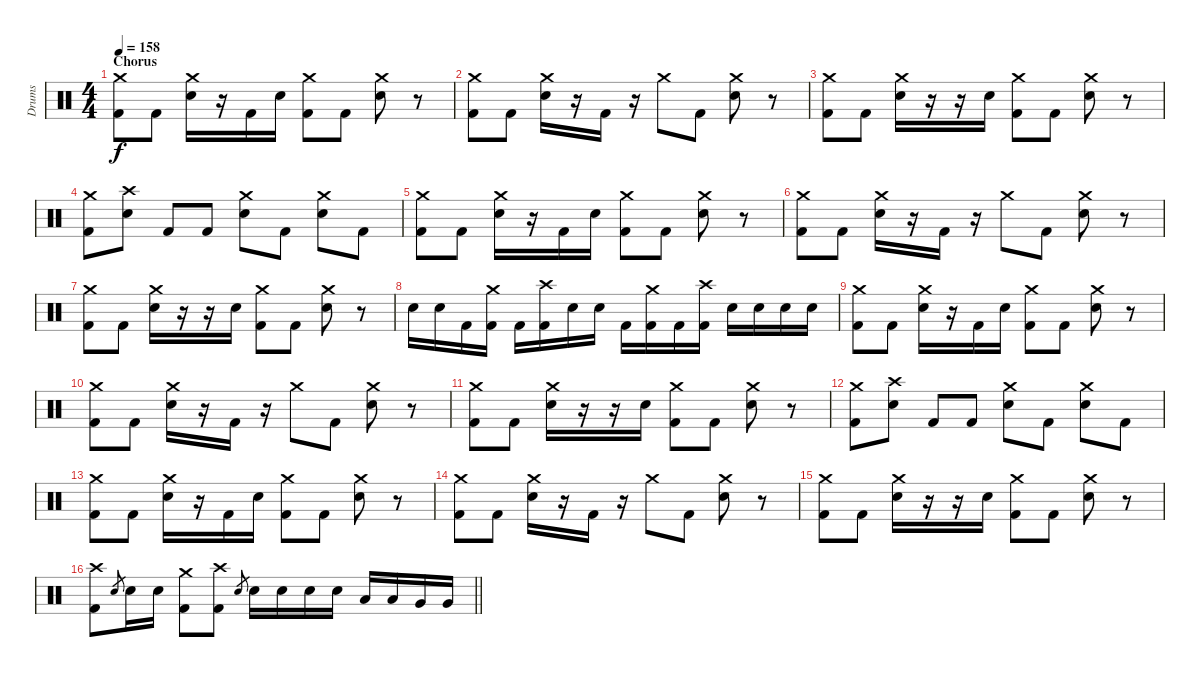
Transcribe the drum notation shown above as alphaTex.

\track ("Drums" "Drums") {instrument percussion}
\staff {score}
\articulation defaults
\ts (4 4)
\section ("" "Chorus")
\tempo 158
\clef neutral
\ks c
("Crash medium (hit)" "Kick (hit) 2").8{dy f} "Kick (hit) 2".8 ("Crash medium (hit)" "Snare (hit) 2").16 r.16 "Kick (hit) 2".16 "Snare (hit) 2".16 ("Crash medium (hit)" "Kick (hit) 2").8 "Kick (hit) 2".8 ("Crash medium (hit)" "Snare (hit) 2").8 r.8 |
("Crash medium (hit)" "Kick (hit) 2").8 "Kick (hit) 2".8 ("Crash medium (hit)" "Snare (hit) 2").16 r.16 "Kick (hit) 2".16 r.16 "Crash medium (hit)".8 "Kick (hit) 2".8 ("Crash medium (hit)" "Snare (hit) 2").8 r.8 |
("Crash medium (hit)" "Kick (hit) 2").8 "Kick (hit) 2".8 ("Crash medium (hit)" "Snare (hit) 2").16 r.16 r.16 "Snare (hit) 2".16 ("Crash medium (hit)" "Kick (hit) 2").8 "Kick (hit) 2".8 ("Crash medium (hit)" "Snare (hit) 2").8 r.8 |
("Crash medium (hit)" "Kick (hit) 2").8 ("Crash high (hit)" "Snare (hit) 2").8 "Kick (hit) 2".8 "Kick (hit) 2".8 ("Crash medium (hit)" "Snare (hit) 2").8 "Kick (hit) 2".8 ("Crash medium (hit)" "Snare (hit) 2").8 "Kick (hit) 2".8 |
("Crash medium (hit)" "Kick (hit) 2").8 "Kick (hit) 2".8 ("Crash medium (hit)" "Snare (hit) 2").16 r.16 "Kick (hit) 2".16 "Snare (hit) 2".16 ("Crash medium (hit)" "Kick (hit) 2").8 "Kick (hit) 2".8 ("Crash medium (hit)" "Snare (hit) 2").8 r.8 |
("Crash medium (hit)" "Kick (hit) 2").8 "Kick (hit) 2".8 ("Crash medium (hit)" "Snare (hit) 2").16 r.16 "Kick (hit) 2".16 r.16 "Crash medium (hit)".8 "Kick (hit) 2".8 ("Crash medium (hit)" "Snare (hit) 2").8 r.8 |
("Crash medium (hit)" "Kick (hit) 2").8 "Kick (hit) 2".8 ("Crash medium (hit)" "Snare (hit) 2").16 r.16 r.16 "Snare (hit) 2".16 ("Crash medium (hit)" "Kick (hit) 2").8 "Kick (hit) 2".8 ("Crash medium (hit)" "Snare (hit) 2").8 r.8 |
"Snare (hit) 2".16 "Snare (hit) 2".16 "Kick (hit) 2".16 ("Crash medium (hit)" "Kick (hit) 2").16 "Kick (hit) 2".16 ("Crash high (hit)" "Kick (hit) 2").16 "Snare (hit) 2".16 "Snare (hit) 2".16 "Kick (hit) 2".16 ("Crash medium (hit)" "Kick (hit) 2").16 "Kick (hit) 2".16 ("Crash high (hit)" "Kick (hit) 2").16 "Snare (hit) 2".16 "Snare (hit) 2".16 "Snare (hit) 2".16 "Snare (hit) 2".16 |
("Crash medium (hit)" "Kick (hit) 2").8 "Kick (hit) 2".8 ("Crash medium (hit)" "Snare (hit) 2").16 r.16 "Kick (hit) 2".16 "Snare (hit) 2".16 ("Crash medium (hit)" "Kick (hit) 2").8 "Kick (hit) 2".8 ("Crash medium (hit)" "Snare (hit) 2").8 r.8 |
("Crash medium (hit)" "Kick (hit) 2").8 "Kick (hit) 2".8 ("Crash medium (hit)" "Snare (hit) 2").16 r.16 "Kick (hit) 2".16 r.16 "Crash medium (hit)".8 "Kick (hit) 2".8 ("Crash medium (hit)" "Snare (hit) 2").8 r.8 |
("Crash medium (hit)" "Kick (hit) 2").8 "Kick (hit) 2".8 ("Crash medium (hit)" "Snare (hit) 2").16 r.16 r.16 "Snare (hit) 2".16 ("Crash medium (hit)" "Kick (hit) 2").8 "Kick (hit) 2".8 ("Crash medium (hit)" "Snare (hit) 2").8 r.8 |
("Crash medium (hit)" "Kick (hit) 2").8 ("Crash high (hit)" "Snare (hit) 2").8 "Kick (hit) 2".8 "Kick (hit) 2".8 ("Crash medium (hit)" "Snare (hit) 2").8 "Kick (hit) 2".8 ("Crash medium (hit)" "Snare (hit) 2").8 "Kick (hit) 2".8 |
("Crash medium (hit)" "Kick (hit) 2").8 "Kick (hit) 2".8 ("Crash medium (hit)" "Snare (hit) 2").16 r.16 "Kick (hit) 2".16 "Snare (hit) 2".16 ("Crash medium (hit)" "Kick (hit) 2").8 "Kick (hit) 2".8 ("Crash medium (hit)" "Snare (hit) 2").8 r.8 |
("Crash medium (hit)" "Kick (hit) 2").8 "Kick (hit) 2".8 ("Crash medium (hit)" "Snare (hit) 2").16 r.16 "Kick (hit) 2".16 r.16 "Crash medium (hit)".8 "Kick (hit) 2".8 ("Crash medium (hit)" "Snare (hit) 2").8 r.8 |
("Crash medium (hit)" "Kick (hit) 2").8 "Kick (hit) 2".8 ("Crash medium (hit)" "Snare (hit) 2").16 r.16 r.16 "Snare (hit) 2".16 ("Crash medium (hit)" "Kick (hit) 2").8 "Kick (hit) 2".8 ("Crash medium (hit)" "Snare (hit) 2").8 r.8 |
\barLineRight lightlight
("Crash high (hit)" "Kick (hit) 2").8 "Snare (hit) 2".8{gr} "Snare (hit) 2".16 "Snare (hit) 2".16 ("Crash medium (hit)" "Kick (hit) 2").8 ("Crash high (hit)" "Kick (hit) 2").8 "Snare (hit) 2".8{gr} "Snare (hit) 2".16 "Snare (hit) 2".16 "Snare (hit) 2".16 "Snare (hit) 2".16 "Low Tom (hit)".16 "Low Tom (hit)".16 "Very Low Tom (hit)".16 "Very Low Tom (hit)".16
